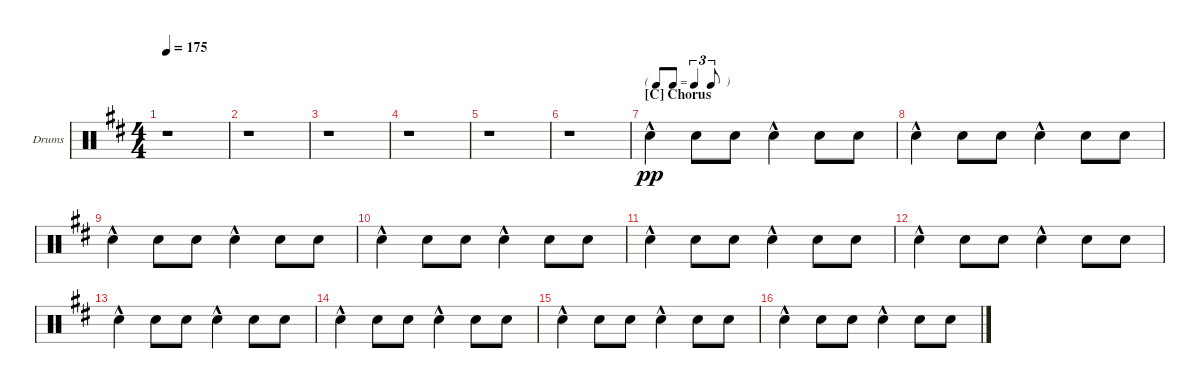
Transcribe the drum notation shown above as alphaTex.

\defaultSystemsLayout 4
\bracketExtendMode groupsimilarinstruments
\firstSystemTrackNameOrientation horizontal
\otherSystemsTrackNameOrientation horizontal
\track ("Drumkit" "Drums") {instrument percussion}
\staff {score}
\articulation defaults
\ts (4 4)
\tempo 175
\clef neutral
\ks d
r.1{dy mp} |
r.1 |
r.1 |
r.1 |
r.1 |
r.1 |
\tf triplet8th
\section ("C" "Chorus")
"Snare (hit) 2"{hac}.4{dy pp} "Snare (hit) 2".8 "Snare (hit) 2".8 "Snare (hit) 2"{hac}.4 "Snare (hit) 2".8 "Snare (hit) 2".8 |
"Snare (hit) 2"{hac}.4 "Snare (hit) 2".8 "Snare (hit) 2".8 "Snare (hit) 2"{hac}.4 "Snare (hit) 2".8 "Snare (hit) 2".8 |
"Snare (hit) 2"{hac}.4 "Snare (hit) 2".8 "Snare (hit) 2".8 "Snare (hit) 2"{hac}.4 "Snare (hit) 2".8 "Snare (hit) 2".8 |
"Snare (hit) 2"{hac}.4 "Snare (hit) 2".8 "Snare (hit) 2".8 "Snare (hit) 2"{hac}.4 "Snare (hit) 2".8 "Snare (hit) 2".8 |
"Snare (hit) 2"{hac}.4 "Snare (hit) 2".8 "Snare (hit) 2".8 "Snare (hit) 2"{hac}.4 "Snare (hit) 2".8 "Snare (hit) 2".8 |
"Snare (hit) 2"{hac}.4 "Snare (hit) 2".8 "Snare (hit) 2".8 "Snare (hit) 2"{hac}.4 "Snare (hit) 2".8 "Snare (hit) 2".8 |
"Snare (hit) 2"{hac}.4 "Snare (hit) 2".8 "Snare (hit) 2".8 "Snare (hit) 2"{hac}.4 "Snare (hit) 2".8 "Snare (hit) 2".8 |
"Snare (hit) 2"{hac}.4 "Snare (hit) 2".8 "Snare (hit) 2".8 "Snare (hit) 2"{hac}.4 "Snare (hit) 2".8 "Snare (hit) 2".8 |
"Snare (hit) 2"{hac}.4 "Snare (hit) 2".8 "Snare (hit) 2".8 "Snare (hit) 2"{hac}.4 "Snare (hit) 2".8 "Snare (hit) 2".8 |
"Snare (hit) 2"{hac}.4 "Snare (hit) 2".8 "Snare (hit) 2".8 "Snare (hit) 2"{hac}.4 "Snare (hit) 2".8 "Snare (hit) 2".8
